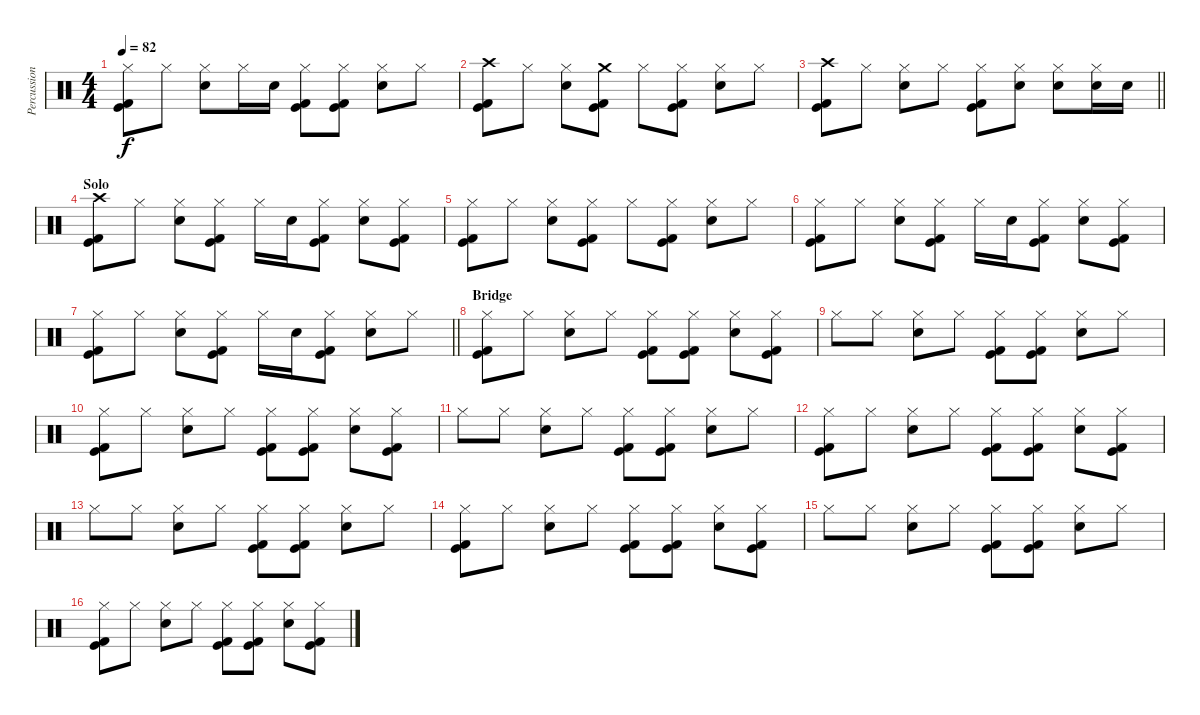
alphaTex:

\track ("Percussion" "Percussion") {instrument percussion}
\staff {score}
\articulation defaults
\ts (4 4)
\tempo 82
\clef neutral
\ks c
("Hi-Hat (closed)" "Kick (hit)" "Kick (hit) 2").8{dy f} "Hi-Hat (closed)".8 ("Hi-Hat (closed)" "Electric Snare (hit)").8 "Hi-Hat (closed)".16 "Electric Snare (hit)".16 ("Hi-Hat (closed)" "Kick (hit)" "Kick (hit) 2").8 ("Hi-Hat (closed)" "Kick (hit)" "Kick (hit) 2").8 ("Hi-Hat (closed)" "Electric Snare (hit)").8 "Hi-Hat (closed)".8 |
("Crash high (hit)" "Kick (hit)" "Kick (hit) 2").8 "Hi-Hat (closed)".8 ("Hi-Hat (closed)" "Electric Snare (hit)").8 ("Crash medium (hit)" "Kick (hit)" "Kick (hit) 2").8 "Hi-Hat (closed)".8 ("Hi-Hat (closed)" "Kick (hit)" "Kick (hit) 2").8 ("Hi-Hat (closed)" "Electric Snare (hit)").8 "Hi-Hat (closed)".8 |
\barLineRight lightlight
("Crash high (hit)" "Kick (hit)" "Kick (hit) 2").8 "Hi-Hat (closed)".8 ("Hi-Hat (closed)" "Electric Snare (hit)").8 "Hi-Hat (closed)".8 ("Hi-Hat (closed)" "Kick (hit)" "Kick (hit) 2").8 ("Hi-Hat (closed)" "Electric Snare (hit)").8 ("Hi-Hat (closed)" "Electric Snare (hit)").8 ("Hi-Hat (closed)" "Electric Snare (hit)").16 "Electric Snare (hit)".16 |
\section ("" "Solo")
("Crash high (hit)" "Kick (hit)" "Kick (hit) 2").8 "Hi-Hat (closed)".8 ("Hi-Hat (closed)" "Electric Snare (hit)").8 ("Hi-Hat (closed)" "Kick (hit)" "Kick (hit) 2").8 "Hi-Hat (closed)".16 "Electric Snare (hit)".16 ("Hi-Hat (closed)" "Kick (hit)" "Kick (hit) 2").8 ("Hi-Hat (closed)" "Electric Snare (hit)").8 ("Hi-Hat (closed)" "Kick (hit)" "Kick (hit) 2").8 |
("Hi-Hat (closed)" "Kick (hit)" "Kick (hit) 2").8 "Hi-Hat (closed)".8 ("Hi-Hat (closed)" "Electric Snare (hit)").8 ("Hi-Hat (closed)" "Kick (hit)" "Kick (hit) 2").8 "Hi-Hat (closed)".8 ("Hi-Hat (closed)" "Kick (hit)" "Kick (hit) 2").8 ("Hi-Hat (closed)" "Electric Snare (hit)").8 "Hi-Hat (closed)".8 |
("Hi-Hat (closed)" "Kick (hit)" "Kick (hit) 2").8 "Hi-Hat (closed)".8 ("Hi-Hat (closed)" "Electric Snare (hit)").8 ("Hi-Hat (closed)" "Kick (hit)" "Kick (hit) 2").8 "Hi-Hat (closed)".16 "Electric Snare (hit)".16 ("Hi-Hat (closed)" "Kick (hit)" "Kick (hit) 2").8 ("Hi-Hat (closed)" "Electric Snare (hit)").8 ("Hi-Hat (closed)" "Kick (hit)" "Kick (hit) 2").8 |
\barLineRight lightlight
("Hi-Hat (closed)" "Kick (hit)" "Kick (hit) 2").8 "Hi-Hat (closed)".8 ("Hi-Hat (closed)" "Electric Snare (hit)").8 ("Hi-Hat (closed)" "Kick (hit)" "Kick (hit) 2").8 "Hi-Hat (closed)".16 "Electric Snare (hit)".16 ("Hi-Hat (closed)" "Kick (hit)" "Kick (hit) 2").8 ("Hi-Hat (closed)" "Electric Snare (hit)").8 "Hi-Hat (closed)".8 |
\section ("" "Bridge")
("Hi-Hat (closed)" "Kick (hit)" "Kick (hit) 2").8 "Hi-Hat (closed)".8 ("Hi-Hat (closed)" "Electric Snare (hit)").8 "Hi-Hat (closed)".8 ("Hi-Hat (closed)" "Kick (hit)" "Kick (hit) 2").8 ("Hi-Hat (closed)" "Kick (hit)" "Kick (hit) 2").8 ("Hi-Hat (closed)" "Electric Snare (hit)").8 ("Hi-Hat (closed)" "Kick (hit)" "Kick (hit) 2").8 |
"Hi-Hat (closed)".8 "Hi-Hat (closed)".8 ("Hi-Hat (closed)" "Electric Snare (hit)").8 "Hi-Hat (closed)".8 ("Hi-Hat (closed)" "Kick (hit)" "Kick (hit) 2").8 ("Hi-Hat (closed)" "Kick (hit)" "Kick (hit) 2").8 ("Hi-Hat (closed)" "Electric Snare (hit)").8 "Hi-Hat (closed)".8 |
("Hi-Hat (closed)" "Kick (hit)" "Kick (hit) 2").8 "Hi-Hat (closed)".8 ("Hi-Hat (closed)" "Electric Snare (hit)").8 "Hi-Hat (closed)".8 ("Hi-Hat (closed)" "Kick (hit)" "Kick (hit) 2").8 ("Hi-Hat (closed)" "Kick (hit)" "Kick (hit) 2").8 ("Hi-Hat (closed)" "Electric Snare (hit)").8 ("Hi-Hat (closed)" "Kick (hit)" "Kick (hit) 2").8 |
"Hi-Hat (closed)".8 "Hi-Hat (closed)".8 ("Hi-Hat (closed)" "Electric Snare (hit)").8 "Hi-Hat (closed)".8 ("Hi-Hat (closed)" "Kick (hit)" "Kick (hit) 2").8 ("Hi-Hat (closed)" "Kick (hit)" "Kick (hit) 2").8 ("Hi-Hat (closed)" "Electric Snare (hit)").8 "Hi-Hat (closed)".8 |
("Hi-Hat (closed)" "Kick (hit)" "Kick (hit) 2").8 "Hi-Hat (closed)".8 ("Hi-Hat (closed)" "Electric Snare (hit)").8 "Hi-Hat (closed)".8 ("Hi-Hat (closed)" "Kick (hit)" "Kick (hit) 2").8 ("Hi-Hat (closed)" "Kick (hit)" "Kick (hit) 2").8 ("Hi-Hat (closed)" "Electric Snare (hit)").8 ("Hi-Hat (closed)" "Kick (hit)" "Kick (hit) 2").8 |
"Hi-Hat (closed)".8 "Hi-Hat (closed)".8 ("Hi-Hat (closed)" "Electric Snare (hit)").8 "Hi-Hat (closed)".8 ("Hi-Hat (closed)" "Kick (hit)" "Kick (hit) 2").8 ("Hi-Hat (closed)" "Kick (hit)" "Kick (hit) 2").8 ("Hi-Hat (closed)" "Electric Snare (hit)").8 "Hi-Hat (closed)".8 |
("Hi-Hat (closed)" "Kick (hit)" "Kick (hit) 2").8 "Hi-Hat (closed)".8 ("Hi-Hat (closed)" "Electric Snare (hit)").8 "Hi-Hat (closed)".8 ("Hi-Hat (closed)" "Kick (hit)" "Kick (hit) 2").8 ("Hi-Hat (closed)" "Kick (hit)" "Kick (hit) 2").8 ("Hi-Hat (closed)" "Electric Snare (hit)").8 ("Hi-Hat (closed)" "Kick (hit)" "Kick (hit) 2").8 |
"Hi-Hat (closed)".8 "Hi-Hat (closed)".8 ("Hi-Hat (closed)" "Electric Snare (hit)").8 "Hi-Hat (closed)".8 ("Hi-Hat (closed)" "Kick (hit)" "Kick (hit) 2").8 ("Hi-Hat (closed)" "Kick (hit)" "Kick (hit) 2").8 ("Hi-Hat (closed)" "Electric Snare (hit)").8 "Hi-Hat (closed)".8 |
("Hi-Hat (closed)" "Kick (hit)" "Kick (hit) 2").8 "Hi-Hat (closed)".8 ("Hi-Hat (closed)" "Electric Snare (hit)").8 "Hi-Hat (closed)".8 ("Hi-Hat (closed)" "Kick (hit)" "Kick (hit) 2").8 ("Hi-Hat (closed)" "Kick (hit)" "Kick (hit) 2").8 ("Hi-Hat (closed)" "Electric Snare (hit)").8 ("Hi-Hat (closed)" "Kick (hit)" "Kick (hit) 2").8
